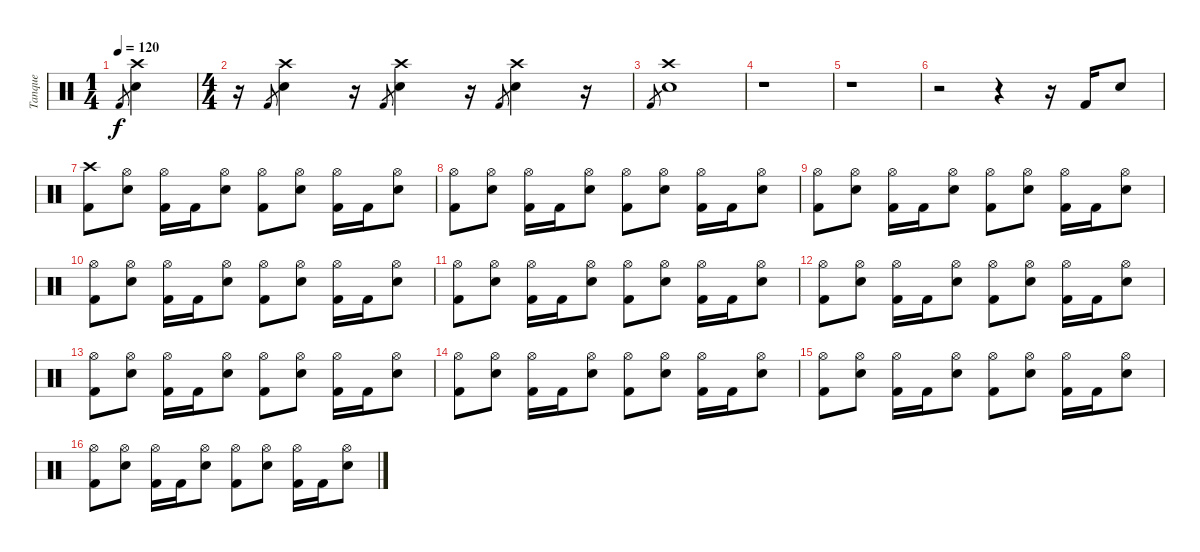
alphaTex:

\track ("Tanque" "Tanque") {instrument percussion}
\staff {score}
\articulation defaults
\ts (1 4)
\tempo 120
\clef neutral
\ks c "Kick (hit) 2".8{gr dy f}
("Crash high (hit)" "Snare (hit) 2").4 |
\ts (4 4)
r.16 "Kick (hit) 2".8{gr} ("Crash high (hit)" "Snare (hit) 2").4 r.16 "Kick (hit) 2".8{gr} ("Crash high (hit)" "Snare (hit) 2").4 r.16 "Kick (hit) 2".8{gr} ("Crash high (hit)" "Snare (hit) 2").4 r.16 |
"Kick (hit) 2".8{gr} ("Crash high (hit)" "Snare (hit) 2").1 |
r.1 |
r.1 |
r.2 r.4 r.16 "Kick (hit) 2".16 "Snare (hit) 2".8 |
("Kick (hit) 2" "Crash high (hit)").8 ("Snare (hit) 2" "Hi-Hat (open)").8 ("Kick (hit) 2" "Hi-Hat (open)").16 "Kick (hit) 2".16 ("Snare (hit) 2" "Hi-Hat (open)").8 ("Kick (hit) 2" "Hi-Hat (open)").8 ("Snare (hit) 2" "Hi-Hat (open)").8 ("Kick (hit) 2" "Hi-Hat (open)").16 "Kick (hit) 2".16 ("Snare (hit) 2" "Hi-Hat (open)").8 |
("Kick (hit) 2" "Hi-Hat (open)").8 ("Snare (hit) 2" "Hi-Hat (open)").8 ("Kick (hit) 2" "Hi-Hat (open)").16 "Kick (hit) 2".16 ("Snare (hit) 2" "Hi-Hat (open)").8 ("Kick (hit) 2" "Hi-Hat (open)").8 ("Snare (hit) 2" "Hi-Hat (open)").8 ("Kick (hit) 2" "Hi-Hat (open)").16 "Kick (hit) 2".16 ("Snare (hit) 2" "Hi-Hat (open)").8 |
("Kick (hit) 2" "Hi-Hat (open)").8 ("Snare (hit) 2" "Hi-Hat (open)").8 ("Kick (hit) 2" "Hi-Hat (open)").16 "Kick (hit) 2".16 ("Snare (hit) 2" "Hi-Hat (open)").8 ("Kick (hit) 2" "Hi-Hat (open)").8 ("Snare (hit) 2" "Hi-Hat (open)").8 ("Kick (hit) 2" "Hi-Hat (open)").16 "Kick (hit) 2".16 ("Snare (hit) 2" "Hi-Hat (open)").8 |
("Kick (hit) 2" "Hi-Hat (open)").8 ("Snare (hit) 2" "Hi-Hat (open)").8 ("Kick (hit) 2" "Hi-Hat (open)").16 "Kick (hit) 2".16 ("Snare (hit) 2" "Hi-Hat (open)").8 ("Kick (hit) 2" "Hi-Hat (open)").8 ("Snare (hit) 2" "Hi-Hat (open)").8 ("Kick (hit) 2" "Hi-Hat (open)").16 "Kick (hit) 2".16 ("Snare (hit) 2" "Hi-Hat (open)").8 |
("Kick (hit) 2" "Hi-Hat (open)").8 ("Snare (hit) 2" "Hi-Hat (open)").8 ("Kick (hit) 2" "Hi-Hat (open)").16 "Kick (hit) 2".16 ("Snare (hit) 2" "Hi-Hat (open)").8 ("Kick (hit) 2" "Hi-Hat (open)").8 ("Snare (hit) 2" "Hi-Hat (open)").8 ("Kick (hit) 2" "Hi-Hat (open)").16 "Kick (hit) 2".16 ("Snare (hit) 2" "Hi-Hat (open)").8 |
("Kick (hit) 2" "Hi-Hat (open)").8 ("Snare (hit) 2" "Hi-Hat (open)").8 ("Kick (hit) 2" "Hi-Hat (open)").16 "Kick (hit) 2".16 ("Snare (hit) 2" "Hi-Hat (open)").8 ("Kick (hit) 2" "Hi-Hat (open)").8 ("Snare (hit) 2" "Hi-Hat (open)").8 ("Kick (hit) 2" "Hi-Hat (open)").16 "Kick (hit) 2".16 ("Snare (hit) 2" "Hi-Hat (open)").8 |
("Kick (hit) 2" "Hi-Hat (open)").8 ("Snare (hit) 2" "Hi-Hat (open)").8 ("Kick (hit) 2" "Hi-Hat (open)").16 "Kick (hit) 2".16 ("Snare (hit) 2" "Hi-Hat (open)").8 ("Kick (hit) 2" "Hi-Hat (open)").8 ("Snare (hit) 2" "Hi-Hat (open)").8 ("Kick (hit) 2" "Hi-Hat (open)").16 "Kick (hit) 2".16 ("Snare (hit) 2" "Hi-Hat (open)").8 |
("Kick (hit) 2" "Hi-Hat (open)").8 ("Snare (hit) 2" "Hi-Hat (open)").8 ("Kick (hit) 2" "Hi-Hat (open)").16 "Kick (hit) 2".16 ("Snare (hit) 2" "Hi-Hat (open)").8 ("Kick (hit) 2" "Hi-Hat (open)").8 ("Snare (hit) 2" "Hi-Hat (open)").8 ("Kick (hit) 2" "Hi-Hat (open)").16 "Kick (hit) 2".16 ("Snare (hit) 2" "Hi-Hat (open)").8 |
("Kick (hit) 2" "Hi-Hat (open)").8 ("Snare (hit) 2" "Hi-Hat (open)").8 ("Kick (hit) 2" "Hi-Hat (open)").16 "Kick (hit) 2".16 ("Snare (hit) 2" "Hi-Hat (open)").8 ("Kick (hit) 2" "Hi-Hat (open)").8 ("Snare (hit) 2" "Hi-Hat (open)").8 ("Kick (hit) 2" "Hi-Hat (open)").16 "Kick (hit) 2".16 ("Snare (hit) 2" "Hi-Hat (open)").8 |
("Kick (hit) 2" "Hi-Hat (open)").8 ("Snare (hit) 2" "Hi-Hat (open)").8 ("Kick (hit) 2" "Hi-Hat (open)").16 "Kick (hit) 2".16 ("Snare (hit) 2" "Hi-Hat (open)").8 ("Kick (hit) 2" "Hi-Hat (open)").8 ("Snare (hit) 2" "Hi-Hat (open)").8 ("Kick (hit) 2" "Hi-Hat (open)").16 "Kick (hit) 2".16 ("Snare (hit) 2" "Hi-Hat (open)").8
